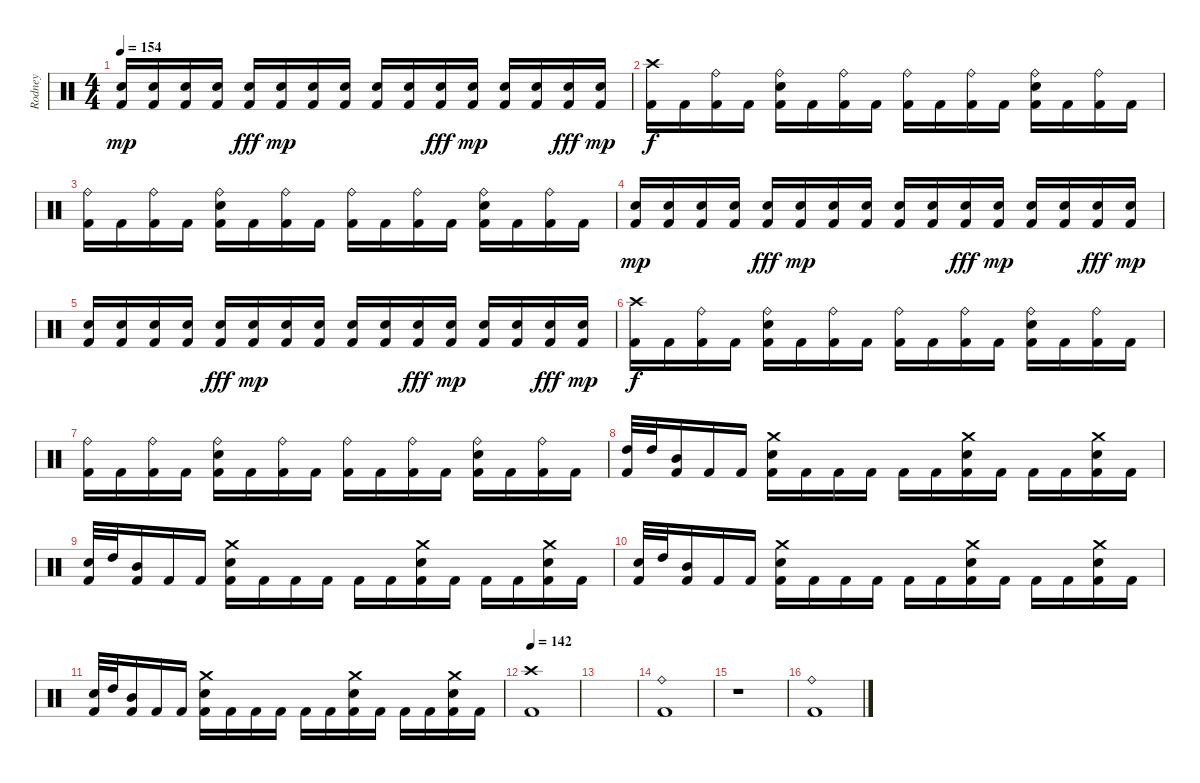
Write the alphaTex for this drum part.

\track ("Rodney" "Rodney") {instrument percussion}
\staff {score}
\articulation defaults
\ts (4 4)
\tempo 154
\clef neutral
\ks c
("Snare (hit) 2" "Kick (hit) 2").16{dy mp} ("Snare (hit) 2" "Kick (hit) 2").16 ("Snare (hit) 2" "Kick (hit) 2").16 ("Snare (hit) 2" "Kick (hit) 2").16 ("Snare (hit) 2" "Kick (hit) 2").16{dy fff} ("Snare (hit) 2" "Kick (hit) 2").16{dy mp} ("Snare (hit) 2" "Kick (hit) 2").16 ("Snare (hit) 2" "Kick (hit) 2").16 ("Snare (hit) 2" "Kick (hit) 2").16 ("Snare (hit) 2" "Kick (hit) 2").16 ("Snare (hit) 2" "Kick (hit) 2").16{dy fff} ("Snare (hit) 2" "Kick (hit) 2").16{dy mp} ("Snare (hit) 2" "Kick (hit) 2").16 ("Snare (hit) 2" "Kick (hit) 2").16 ("Snare (hit) 2" "Kick (hit) 2").16{dy fff} ("Snare (hit) 2" "Kick (hit) 2").16{dy mp} |
("Crash high (hit)" "Kick (hit) 2").16{dy f} "Kick (hit) 2".16 ("Ride (bell)" "Kick (hit) 2").16 "Kick (hit) 2".16 ("Ride (bell)" "Snare (hit) 2" "Kick (hit) 2").16 "Kick (hit) 2".16 ("Ride (bell)" "Kick (hit) 2").16 "Kick (hit) 2".16 ("Ride (bell)" "Kick (hit) 2").16 "Kick (hit) 2".16 ("Ride (bell)" "Kick (hit) 2").16 "Kick (hit) 2".16 ("Ride (bell)" "Snare (hit) 2" "Kick (hit) 2").16 "Kick (hit) 2".16 ("Ride (bell)" "Kick (hit) 2").16 "Kick (hit) 2".16 |
("Ride (bell)" "Kick (hit) 2").16 "Kick (hit) 2".16 ("Ride (bell)" "Kick (hit) 2").16 "Kick (hit) 2".16 ("Ride (bell)" "Snare (hit) 2" "Kick (hit) 2").16 "Kick (hit) 2".16 ("Ride (bell)" "Kick (hit) 2").16 "Kick (hit) 2".16 ("Ride (bell)" "Kick (hit) 2").16 "Kick (hit) 2".16 ("Ride (bell)" "Kick (hit) 2").16 "Kick (hit) 2".16 ("Ride (bell)" "Snare (hit) 2" "Kick (hit) 2").16 "Kick (hit) 2".16 ("Ride (bell)" "Kick (hit) 2").16 "Kick (hit) 2".16 |
("Snare (hit) 2" "Kick (hit) 2").16{dy mp} ("Snare (hit) 2" "Kick (hit) 2").16 ("Snare (hit) 2" "Kick (hit) 2").16 ("Snare (hit) 2" "Kick (hit) 2").16 ("Snare (hit) 2" "Kick (hit) 2").16{dy fff} ("Snare (hit) 2" "Kick (hit) 2").16{dy mp} ("Snare (hit) 2" "Kick (hit) 2").16 ("Snare (hit) 2" "Kick (hit) 2").16 ("Snare (hit) 2" "Kick (hit) 2").16 ("Snare (hit) 2" "Kick (hit) 2").16 ("Snare (hit) 2" "Kick (hit) 2").16{dy fff} ("Snare (hit) 2" "Kick (hit) 2").16{dy mp} ("Snare (hit) 2" "Kick (hit) 2").16 ("Snare (hit) 2" "Kick (hit) 2").16 ("Snare (hit) 2" "Kick (hit) 2").16{dy fff} ("Snare (hit) 2" "Kick (hit) 2").16{dy mp} |
("Snare (hit) 2" "Kick (hit) 2").16 ("Snare (hit) 2" "Kick (hit) 2").16 ("Snare (hit) 2" "Kick (hit) 2").16 ("Snare (hit) 2" "Kick (hit) 2").16 ("Snare (hit) 2" "Kick (hit) 2").16{dy fff} ("Snare (hit) 2" "Kick (hit) 2").16{dy mp} ("Snare (hit) 2" "Kick (hit) 2").16 ("Snare (hit) 2" "Kick (hit) 2").16 ("Snare (hit) 2" "Kick (hit) 2").16 ("Snare (hit) 2" "Kick (hit) 2").16 ("Snare (hit) 2" "Kick (hit) 2").16{dy fff} ("Snare (hit) 2" "Kick (hit) 2").16{dy mp} ("Snare (hit) 2" "Kick (hit) 2").16 ("Snare (hit) 2" "Kick (hit) 2").16 ("Snare (hit) 2" "Kick (hit) 2").16{dy fff} ("Snare (hit) 2" "Kick (hit) 2").16{dy mp} |
("Crash high (hit)" "Kick (hit) 2").16{dy f} "Kick (hit) 2".16 ("Ride (bell)" "Kick (hit) 2").16 "Kick (hit) 2".16 ("Ride (bell)" "Snare (hit) 2" "Kick (hit) 2").16 "Kick (hit) 2".16 ("Ride (bell)" "Kick (hit) 2").16 "Kick (hit) 2".16 ("Ride (bell)" "Kick (hit) 2").16 "Kick (hit) 2".16 ("Ride (bell)" "Kick (hit) 2").16 "Kick (hit) 2".16 ("Ride (bell)" "Snare (hit) 2" "Kick (hit) 2").16 "Kick (hit) 2".16 ("Ride (bell)" "Kick (hit) 2").16 "Kick (hit) 2".16 |
("Ride (bell)" "Kick (hit) 2").16 "Kick (hit) 2".16 ("Ride (bell)" "Kick (hit) 2").16 "Kick (hit) 2".16 ("Ride (bell)" "Snare (hit) 2" "Kick (hit) 2").16 "Kick (hit) 2".16 ("Ride (bell)" "Kick (hit) 2").16 "Kick (hit) 2".16 ("Ride (bell)" "Kick (hit) 2").16 "Kick (hit) 2".16 ("Ride (bell)" "Kick (hit) 2").16 "Kick (hit) 2".16 ("Ride (bell)" "Snare (hit) 2" "Kick (hit) 2").16 "Kick (hit) 2".16 ("Ride (bell)" "Kick (hit) 2").16 "Kick (hit) 2".16 |
("High Tom (hit)" "Kick (hit) 2").32 "High Tom (hit)".32 ("Mid Tom (hit)" "Kick (hit) 2").16 "Kick (hit) 2".16 "Kick (hit) 2".16 ("Crash medium (hit)" "Snare (hit) 2" "Kick (hit) 2").16 "Kick (hit) 2".16 "Kick (hit) 2".16 "Kick (hit) 2".16 "Kick (hit) 2".16 "Kick (hit) 2".16 ("Crash medium (hit)" "Snare (hit) 2" "Kick (hit) 2").16 "Kick (hit) 2".16 "Kick (hit) 2".16 "Kick (hit) 2".16 ("Crash medium (hit)" "Snare (hit) 2" "Kick (hit) 2").16 "Kick (hit) 2".16 |
("Snare (hit) 2" "Kick (hit) 2").32 "High Tom (hit)".32 ("Mid Tom (hit)" "Kick (hit) 2").16 "Kick (hit) 2".16 "Kick (hit) 2".16 ("Crash medium (hit)" "Snare (hit) 2" "Kick (hit) 2").16 "Kick (hit) 2".16 "Kick (hit) 2".16 "Kick (hit) 2".16 "Kick (hit) 2".16 "Kick (hit) 2".16 ("Crash medium (hit)" "Snare (hit) 2" "Kick (hit) 2").16 "Kick (hit) 2".16 "Kick (hit) 2".16 "Kick (hit) 2".16 ("Crash medium (hit)" "Snare (hit) 2" "Kick (hit) 2").16 "Kick (hit) 2".16 |
("Snare (hit) 2" "Kick (hit) 2").32 "High Tom (hit)".32 ("Mid Tom (hit)" "Kick (hit) 2").16 "Kick (hit) 2".16 "Kick (hit) 2".16 ("Crash medium (hit)" "Snare (hit) 2" "Kick (hit) 2").16 "Kick (hit) 2".16 "Kick (hit) 2".16 "Kick (hit) 2".16 "Kick (hit) 2".16 "Kick (hit) 2".16 ("Crash medium (hit)" "Snare (hit) 2" "Kick (hit) 2").16 "Kick (hit) 2".16 "Kick (hit) 2".16 "Kick (hit) 2".16 ("Crash medium (hit)" "Snare (hit) 2" "Kick (hit) 2").16 "Kick (hit) 2".16 |
("Snare (hit) 2" "Kick (hit) 2").32 "High Tom (hit)".32 ("Mid Tom (hit)" "Kick (hit) 2").16 "Kick (hit) 2".16 "Kick (hit) 2".16 ("Crash medium (hit)" "Snare (hit) 2" "Kick (hit) 2").16 "Kick (hit) 2".16 "Kick (hit) 2".16 "Kick (hit) 2".16 "Kick (hit) 2".16 "Kick (hit) 2".16 ("Crash medium (hit)" "Snare (hit) 2" "Kick (hit) 2").16 "Kick (hit) 2".16 "Kick (hit) 2".16 "Kick (hit) 2".16 ("Crash medium (hit)" "Snare (hit) 2" "Kick (hit) 2").16 "Kick (hit) 2".16 |
\tempo 142
("Crash high (hit)" "Kick (hit) 2").1 |
|
("Ride (bell)" "Kick (hit) 2").1 |
r.1 |
("Ride (bell)" "Kick (hit) 2").1
